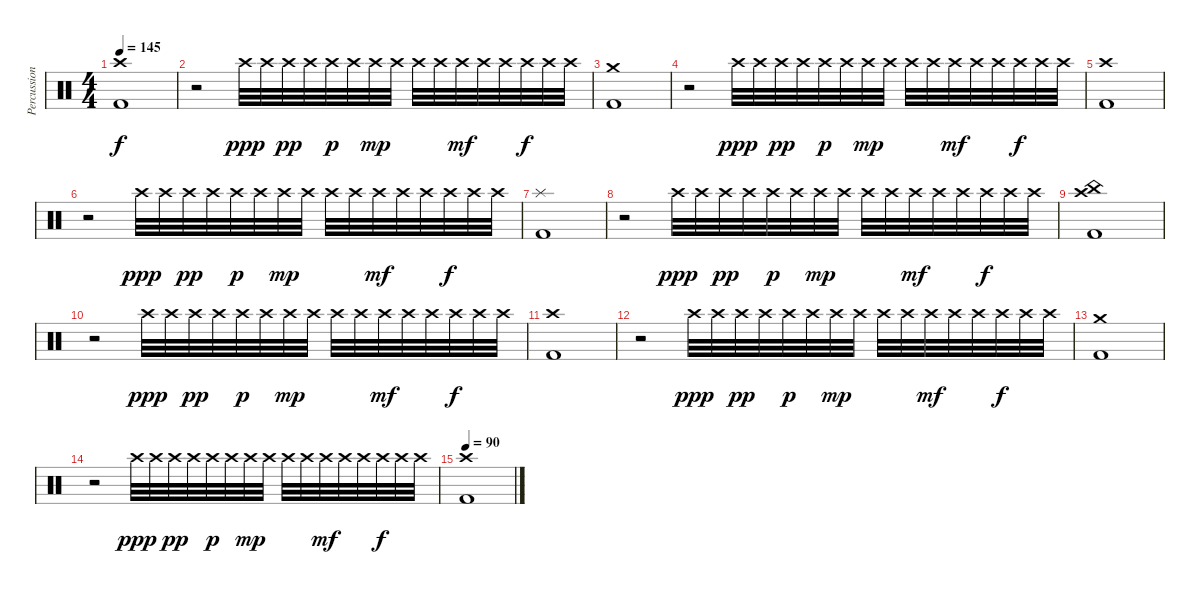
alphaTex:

\track ("Percussion" "Percussion") {instrument percussion}
\staff {score}
\articulation defaults
\ts (4 4)
\tempo 145
\clef neutral
\ks c
("Crash high (hit)" "Kick (hit) 2").1{dy f} |
r.2 "Crash high (hit)".32{dy ppp} "Crash high (hit)".32 "Crash high (hit)".32{dy pp} "Crash high (hit)".32 "Crash high (hit)".32{dy p} "Crash high (hit)".32 "Crash high (hit)".32{dy mp} "Crash high (hit)".32 "Crash high (hit)".32 "Crash high (hit)".32 "Crash high (hit)".32{dy mf} "Crash high (hit)".32 "Crash high (hit)".32 "Crash high (hit)".32{dy f} "Crash high (hit)".32 "Crash high (hit)".32 |
("Crash medium (hit)" "Kick (hit) 2").1 |
r.2 "Crash high (hit)".32{dy ppp} "Crash high (hit)".32 "Crash high (hit)".32{dy pp} "Crash high (hit)".32 "Crash high (hit)".32{dy p} "Crash high (hit)".32 "Crash high (hit)".32{dy mp} "Crash high (hit)".32 "Crash high (hit)".32 "Crash high (hit)".32 "Crash high (hit)".32{dy mf} "Crash high (hit)".32 "Crash high (hit)".32 "Crash high (hit)".32{dy f} "Crash high (hit)".32 "Crash high (hit)".32 |
("Crash high (hit)" "Kick (hit) 2").1 |
r.2 "Crash high (hit)".32{dy ppp} "Crash high (hit)".32 "Crash high (hit)".32{dy pp} "Crash high (hit)".32 "Crash high (hit)".32{dy p} "Crash high (hit)".32 "Crash high (hit)".32{dy mp} "Crash high (hit)".32 "Crash high (hit)".32 "Crash high (hit)".32 "Crash high (hit)".32{dy mf} "Crash high (hit)".32 "Crash high (hit)".32 "Crash high (hit)".32{dy f} "Crash high (hit)".32 "Crash high (hit)".32 |
("Splash (hit)" "Kick (hit) 2").1 |
r.2 "Crash high (hit)".32{dy ppp} "Crash high (hit)".32 "Crash high (hit)".32{dy pp} "Crash high (hit)".32 "Crash high (hit)".32{dy p} "Crash high (hit)".32 "Crash high (hit)".32{dy mp} "Crash high (hit)".32 "Crash high (hit)".32 "Crash high (hit)".32 "Crash high (hit)".32{dy mf} "Crash high (hit)".32 "Crash high (hit)".32 "Crash high (hit)".32{dy f} "Crash high (hit)".32 "Crash high (hit)".32 |
("Crash high (hit)" "China (hit)" "Kick (hit) 2").1 |
r.2 "Crash high (hit)".32{dy ppp} "Crash high (hit)".32 "Crash high (hit)".32{dy pp} "Crash high (hit)".32 "Crash high (hit)".32{dy p} "Crash high (hit)".32 "Crash high (hit)".32{dy mp} "Crash high (hit)".32 "Crash high (hit)".32 "Crash high (hit)".32 "Crash high (hit)".32{dy mf} "Crash high (hit)".32 "Crash high (hit)".32 "Crash high (hit)".32{dy f} "Crash high (hit)".32 "Crash high (hit)".32 |
("Crash high (hit)" "Kick (hit) 2").1 |
r.2 "Crash high (hit)".32{dy ppp} "Crash high (hit)".32 "Crash high (hit)".32{dy pp} "Crash high (hit)".32 "Crash high (hit)".32{dy p} "Crash high (hit)".32 "Crash high (hit)".32{dy mp} "Crash high (hit)".32 "Crash high (hit)".32 "Crash high (hit)".32 "Crash high (hit)".32{dy mf} "Crash high (hit)".32 "Crash high (hit)".32 "Crash high (hit)".32{dy f} "Crash high (hit)".32 "Crash high (hit)".32 |
("Crash medium (hit)" "Kick (hit) 2").1 |
r.2 "Crash high (hit)".32{dy ppp} "Crash high (hit)".32 "Crash high (hit)".32{dy pp} "Crash high (hit)".32 "Crash high (hit)".32{dy p} "Crash high (hit)".32 "Crash high (hit)".32{dy mp} "Crash high (hit)".32 "Crash high (hit)".32 "Crash high (hit)".32 "Crash high (hit)".32{dy mf} "Crash high (hit)".32 "Crash high (hit)".32 "Crash high (hit)".32{dy f} "Crash high (hit)".32 "Crash high (hit)".32 |
\tempo 90
("Crash high (hit)" "Kick (hit) 2").1
